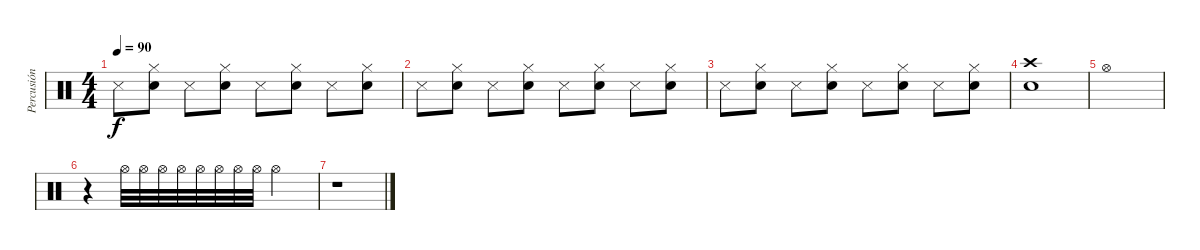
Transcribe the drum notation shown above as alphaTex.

\track ("Percusión" "Percusión") {instrument percussion}
\staff {score}
\articulation defaults
\ts (4 4)
\tempo 90
\clef neutral
\ks c "Snare (side stick) 3".8{dy f}
("Electric Snare (hit)" "Hi-Hat (closed)").8 "Snare (side stick) 3".8 ("Electric Snare (hit)" "Hi-Hat (closed)").8 "Snare (side stick) 3".8 ("Electric Snare (hit)" "Hi-Hat (closed)").8 "Snare (side stick) 3".8 ("Electric Snare (hit)" "Hi-Hat (closed)").8 |
"Snare (side stick) 3".8 ("Electric Snare (hit)" "Hi-Hat (closed)").8 "Snare (side stick) 3".8 ("Electric Snare (hit)" "Hi-Hat (closed)").8 "Snare (side stick) 3".8 ("Electric Snare (hit)" "Hi-Hat (closed)").8 "Snare (side stick) 3".8 ("Electric Snare (hit)" "Hi-Hat (closed)").8 |
"Snare (side stick) 3".8 ("Electric Snare (hit)" "Hi-Hat (closed)").8 "Snare (side stick) 3".8 ("Electric Snare (hit)" "Hi-Hat (closed)").8 "Snare (side stick) 3".8 ("Electric Snare (hit)" "Hi-Hat (closed)").8 "Snare (side stick) 3".8 ("Electric Snare (hit)" "Hi-Hat (closed)").8 |
("Crash high (hit)" "Electric Snare (hit)").1 |
"Hi-Hat (open)".1 |
r.4 "Hi-Hat (open)".32{volume 11} "Hi-Hat (open)".32{volume 12} "Hi-Hat (open)".32{volume 12} "Hi-Hat (open)".32{volume 13} "Hi-Hat (open)".32{volume 13} "Hi-Hat (open)".32{volume 14} "Hi-Hat (open)".32{volume 14} "Hi-Hat (open)".32{volume 15} "Hi-Hat (open)".2 |
r.1
